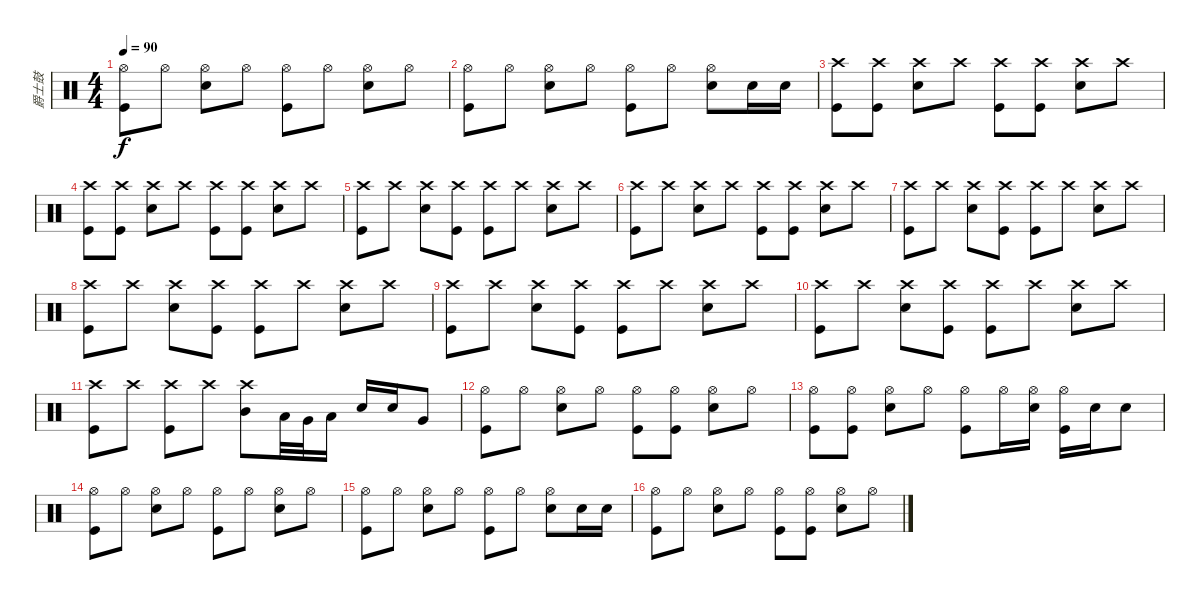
\track ("爵士鼓" "爵士鼓") {instrument percussion}
\staff {score}
\articulation defaults
\ts (4 4)
\tempo 90
\clef neutral
\ks c
("Hi-Hat (open)" "Kick (hit)").8{dy f} "Hi-Hat (open)".8 ("Hi-Hat (open)" "Snare (hit) 2").8 "Hi-Hat (open)".8 ("Hi-Hat (open)" "Kick (hit)").8 "Hi-Hat (open)".8 ("Hi-Hat (open)" "Snare (hit) 2").8 "Hi-Hat (open)".8 |
("Hi-Hat (open)" "Kick (hit)").8 "Hi-Hat (open)".8 ("Hi-Hat (open)" "Snare (hit) 2").8 "Hi-Hat (open)".8 ("Hi-Hat (open)" "Kick (hit)").8 "Hi-Hat (open)".8 ("Hi-Hat (open)" "Snare (hit) 2").8 "Snare (hit) 2".16 "Snare (hit) 2".16 |
("Crash high (hit)" "Kick (hit)").8 ("Crash high (hit)" "Kick (hit)").8 ("Crash high (hit)" "Snare (hit) 2").8 "Crash high (hit)".8 ("Crash high (hit)" "Kick (hit)").8 ("Crash high (hit)" "Kick (hit)").8 ("Crash high (hit)" "Snare (hit) 2").8 "Crash high (hit)".8 |
("Crash high (hit)" "Kick (hit)").8 ("Crash high (hit)" "Kick (hit)").8 ("Crash high (hit)" "Snare (hit) 2").8 "Crash high (hit)".8 ("Crash high (hit)" "Kick (hit)").8 ("Crash high (hit)" "Kick (hit)").8 ("Crash high (hit)" "Snare (hit) 2").8 "Crash high (hit)".8 |
("Crash high (hit)" "Kick (hit)").8 "Crash high (hit)".8 ("Crash high (hit)" "Snare (hit) 2").8 ("Crash high (hit)" "Kick (hit)").8 ("Crash high (hit)" "Kick (hit)").8 "Crash high (hit)".8 ("Crash high (hit)" "Snare (hit) 2").8 "Crash high (hit)".8 |
("Crash high (hit)" "Kick (hit)").8 "Crash high (hit)".8 ("Crash high (hit)" "Snare (hit) 2").8 "Crash high (hit)".8 ("Crash high (hit)" "Kick (hit)").8 ("Crash high (hit)" "Kick (hit)").8 ("Crash high (hit)" "Snare (hit) 2").8 "Crash high (hit)".8 |
("Crash high (hit)" "Kick (hit)").8 "Crash high (hit)".8 ("Crash high (hit)" "Snare (hit) 2").8 ("Crash high (hit)" "Kick (hit)").8 ("Crash high (hit)" "Kick (hit)").8 "Crash high (hit)".8 ("Crash high (hit)" "Snare (hit) 2").8 "Crash high (hit)".8 |
("Crash high (hit)" "Kick (hit)").8 "Crash high (hit)".8 ("Crash high (hit)" "Snare (hit) 2").8 ("Crash high (hit)" "Kick (hit)").8 ("Crash high (hit)" "Kick (hit)").8 "Crash high (hit)".8 ("Crash high (hit)" "Snare (hit) 2").8 "Crash high (hit)".8 |
("Crash high (hit)" "Kick (hit)").8 "Crash high (hit)".8 ("Crash high (hit)" "Snare (hit) 2").8 ("Crash high (hit)" "Kick (hit)").8 ("Crash high (hit)" "Kick (hit)").8 "Crash high (hit)".8 ("Crash high (hit)" "Snare (hit) 2").8 "Crash high (hit)".8 |
("Crash high (hit)" "Kick (hit)").8 "Crash high (hit)".8 ("Crash high (hit)" "Snare (hit) 2").8 ("Crash high (hit)" "Kick (hit)").8 ("Crash high (hit)" "Kick (hit)").8 "Crash high (hit)".8 ("Crash high (hit)" "Snare (hit) 2").8 "Crash high (hit)".8 |
("Crash high (hit)" "Kick (hit)").8 "Crash high (hit)".8 ("Crash high (hit)" "Kick (hit)").8 "Crash high (hit)".8 ("Crash high (hit)" "Mid Tom (hit)").8 "Low Tom (hit)".32 "Very Low Tom (hit)".32 "Low Floor Tom (hit)".16 "Snare (hit) 2".16 "Snare (hit) 2".16 "Very Low Tom (hit)".8 |
("Hi-Hat (open)" "Kick (hit)").8 "Hi-Hat (open)".8 ("Hi-Hat (open)" "Snare (hit) 2").8 "Hi-Hat (open)".8 ("Hi-Hat (open)" "Kick (hit)").8 ("Hi-Hat (open)" "Kick (hit)").8 ("Hi-Hat (open)" "Snare (hit) 2").8 "Hi-Hat (open)".8 |
("Hi-Hat (open)" "Kick (hit)").8 ("Hi-Hat (open)" "Kick (hit)").8 ("Hi-Hat (open)" "Snare (hit) 2").8 "Hi-Hat (open)".8 ("Hi-Hat (open)" "Kick (hit)").8 "Hi-Hat (open)".16 ("Hi-Hat (open)" "Snare (hit) 2").16 ("Hi-Hat (open)" "Kick (hit)").16 "Snare (hit) 2".16 "Snare (hit) 2".8 |
("Hi-Hat (open)" "Kick (hit)").8 "Hi-Hat (open)".8 ("Hi-Hat (open)" "Snare (hit) 2").8 "Hi-Hat (open)".8 ("Hi-Hat (open)" "Kick (hit)").8 "Hi-Hat (open)".8 ("Hi-Hat (open)" "Snare (hit) 2").8 "Hi-Hat (open)".8 |
("Hi-Hat (open)" "Kick (hit)").8 "Hi-Hat (open)".8 ("Hi-Hat (open)" "Snare (hit) 2").8 "Hi-Hat (open)".8 ("Hi-Hat (open)" "Kick (hit)").8 "Hi-Hat (open)".8 ("Hi-Hat (open)" "Snare (hit) 2").8 "Snare (hit) 2".16 "Snare (hit) 2".16 |
("Hi-Hat (open)" "Kick (hit)").8 "Hi-Hat (open)".8 ("Hi-Hat (open)" "Snare (hit) 2").8 "Hi-Hat (open)".8 ("Hi-Hat (open)" "Kick (hit)").8 ("Hi-Hat (open)" "Kick (hit)").8 ("Hi-Hat (open)" "Snare (hit) 2").8 "Hi-Hat (open)".8
